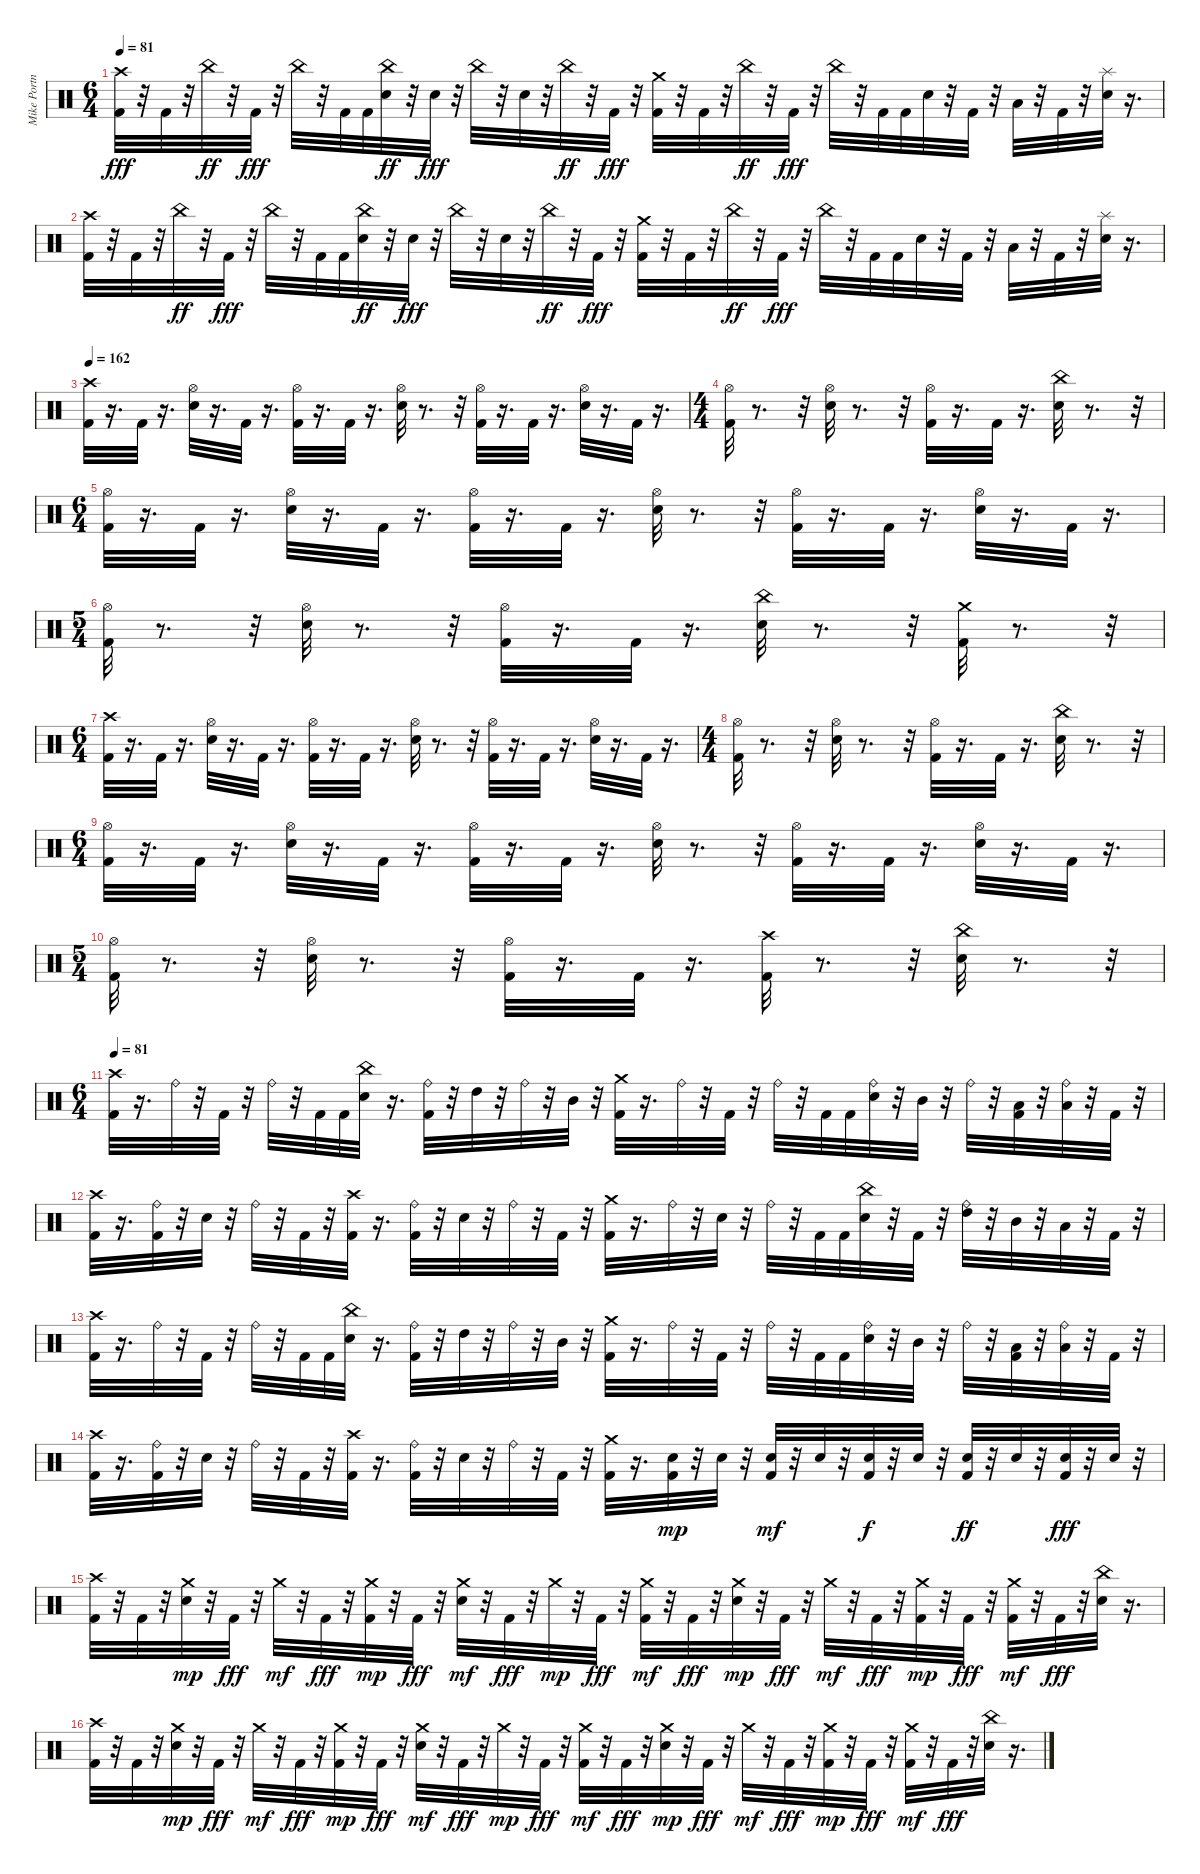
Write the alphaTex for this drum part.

\track ("Mike Portnoy" "Mike Portn") {instrument percussion}
\staff {score}
\articulation defaults
\ts (6 4)
\tempo 81
\clef neutral
\ks c
("Kick (hit) 2" "Crash high (hit)").32{dy fff} r.32 "Kick (hit) 2".32 r.32 "China (hit)".32{dy ff} r.32 "Kick (hit) 2".32{dy fff} r.32 "China (hit)".32 r.32 "Kick (hit) 2".32 "Kick (hit) 2".32 ("Snare (hit) 2" "China (hit)").32{dy ff} r.32 "Snare (hit) 2".32{dy fff} r.32 "China (hit)".32 r.32 "Snare (hit) 2".32 r.32 "China (hit)".32{dy ff} r.32 "Kick (hit) 2".32{dy fff} r.32 ("Kick (hit) 2" "Crash medium (hit)").32 r.32 "Kick (hit) 2".32 r.32 "China (hit)".32{dy ff} r.32 "Kick (hit) 2".32{dy fff} r.32 "China (hit)".32 r.32 "Kick (hit) 2".32 "Kick (hit) 2".32 "Snare (hit) 2".32 r.32 "Kick (hit) 2".32 r.32 "Low Tom (hit)".32 r.32 "Kick (hit) 2".32 r.32 ("Snare (hit) 2" "Splash (hit)").32 r.16{d} |
("Kick (hit) 2" "Crash high (hit)").32 r.32 "Kick (hit) 2".32 r.32 "China (hit)".32{dy ff} r.32 "Kick (hit) 2".32{dy fff} r.32 "China (hit)".32 r.32 "Kick (hit) 2".32 "Kick (hit) 2".32 ("Snare (hit) 2" "China (hit)").32{dy ff} r.32 "Snare (hit) 2".32{dy fff} r.32 "China (hit)".32 r.32 "Snare (hit) 2".32 r.32 "China (hit)".32{dy ff} r.32 "Kick (hit) 2".32{dy fff} r.32 ("Kick (hit) 2" "Crash medium (hit)").32 r.32 "Kick (hit) 2".32 r.32 "China (hit)".32{dy ff} r.32 "Kick (hit) 2".32{dy fff} r.32 "China (hit)".32 r.32 "Kick (hit) 2".32 "Kick (hit) 2".32 "Snare (hit) 2".32 r.32 "Kick (hit) 2".32 r.32 "Low Tom (hit)".32 r.32 "Kick (hit) 2".32 r.32 ("Snare (hit) 2" "Splash (hit)").32 r.16{d} |
\tempo 162
("Kick (hit) 2" "Crash high (hit)").32 r.16{d} "Kick (hit) 2".32 r.16{d} ("Hi-Hat (open)" "Snare (hit) 2").32 r.16{d} "Kick (hit) 2".32 r.16{d} ("Hi-Hat (open)" "Kick (hit) 2").32 r.16{d} "Kick (hit) 2".32 r.16{d} ("Hi-Hat (open)" "Snare (hit) 2").32 r.8{d} r.32 ("Hi-Hat (open)" "Kick (hit) 2").32 r.16{d} "Kick (hit) 2".32 r.16{d} ("Hi-Hat (open)" "Snare (hit) 2").32 r.16{d} "Kick (hit) 2".32 r.16{d} |
\ts (4 4)
("Hi-Hat (open)" "Kick (hit) 2").32 r.8{d} r.32 ("Hi-Hat (open)" "Snare (hit) 2").32 r.8{d} r.32 ("Hi-Hat (open)" "Kick (hit) 2").32 r.16{d} "Kick (hit) 2".32 r.16{d} ("Snare (hit) 2" "China (hit)").32 r.8{d} r.32 |
\ts (6 4)
("Hi-Hat (open)" "Kick (hit) 2").32 r.16{d} "Kick (hit) 2".32 r.16{d} ("Hi-Hat (open)" "Snare (hit) 2").32 r.16{d} "Kick (hit) 2".32 r.16{d} ("Hi-Hat (open)" "Kick (hit) 2").32 r.16{d} "Kick (hit) 2".32 r.16{d} ("Hi-Hat (open)" "Snare (hit) 2").32 r.8{d} r.32 ("Hi-Hat (open)" "Kick (hit) 2").32 r.16{d} "Kick (hit) 2".32 r.16{d} ("Hi-Hat (open)" "Snare (hit) 2").32 r.16{d} "Kick (hit) 2".32 r.16{d} |
\ts (5 4)
("Hi-Hat (open)" "Kick (hit) 2").32 r.8{d} r.32 ("Hi-Hat (open)" "Snare (hit) 2").32 r.8{d} r.32 ("Hi-Hat (open)" "Kick (hit) 2").32 r.16{d} "Kick (hit) 2".32 r.16{d} ("Snare (hit) 2" "China (hit)").32 r.8{d} r.32 ("Kick (hit) 2" "Crash medium (hit)").32 r.8{d} r.32 |
\ts (6 4)
("Kick (hit) 2" "Crash high (hit)").32 r.16{d} "Kick (hit) 2".32 r.16{d} ("Hi-Hat (open)" "Snare (hit) 2").32 r.16{d} "Kick (hit) 2".32 r.16{d} ("Hi-Hat (open)" "Kick (hit) 2").32 r.16{d} "Kick (hit) 2".32 r.16{d} ("Hi-Hat (open)" "Snare (hit) 2").32 r.8{d} r.32 ("Hi-Hat (open)" "Kick (hit) 2").32 r.16{d} "Kick (hit) 2".32 r.16{d} ("Hi-Hat (open)" "Snare (hit) 2").32 r.16{d} "Kick (hit) 2".32 r.16{d} |
\ts (4 4)
("Hi-Hat (open)" "Kick (hit) 2").32 r.8{d} r.32 ("Hi-Hat (open)" "Snare (hit) 2").32 r.8{d} r.32 ("Hi-Hat (open)" "Kick (hit) 2").32 r.16{d} "Kick (hit) 2".32 r.16{d} ("Snare (hit) 2" "China (hit)").32 r.8{d} r.32 |
\ts (6 4)
("Hi-Hat (open)" "Kick (hit) 2").32 r.16{d} "Kick (hit) 2".32 r.16{d} ("Hi-Hat (open)" "Snare (hit) 2").32 r.16{d} "Kick (hit) 2".32 r.16{d} ("Hi-Hat (open)" "Kick (hit) 2").32 r.16{d} "Kick (hit) 2".32 r.16{d} ("Hi-Hat (open)" "Snare (hit) 2").32 r.8{d} r.32 ("Hi-Hat (open)" "Kick (hit) 2").32 r.16{d} "Kick (hit) 2".32 r.16{d} ("Hi-Hat (open)" "Snare (hit) 2").32 r.16{d} "Kick (hit) 2".32 r.16{d} |
\ts (5 4)
("Hi-Hat (open)" "Kick (hit) 2").32 r.8{d} r.32 ("Hi-Hat (open)" "Snare (hit) 2").32 r.8{d} r.32 ("Hi-Hat (open)" "Kick (hit) 2").32 r.16{d} "Kick (hit) 2".32 r.16{d} ("Kick (hit) 2" "Crash high (hit)").32 r.8{d} r.32 ("Snare (hit) 2" "China (hit)").32 r.8{d} r.32 |
\ts (6 4)
\tempo 81
("Kick (hit) 2" "Crash high (hit)").32 r.16{d} "Ride (bell)".32 r.32 "Kick (hit) 2".32 r.32 "Ride (bell)".32 r.32 "Kick (hit) 2".32 "Kick (hit) 2".32 ("Snare (hit) 2" "China (hit)").32 r.16{d} ("Kick (hit) 2" "Ride (bell)").32 r.32 "High Tom (hit)".32 r.32 "Ride (bell)".32 r.32 "Mid Tom (hit)".32 r.32 ("Kick (hit) 2" "Crash medium (hit)").32 r.16{d} "Ride (bell)".32 r.32 "Kick (hit) 2".32 r.32 "Ride (bell)".32 r.32 "Kick (hit) 2".32 "Kick (hit) 2".32 ("Snare (hit) 2" "Ride (bell)").32 r.32 "Mid Tom (hit)".32 r.32 "Ride (bell)".32 r.32 ("Kick (hit) 2" "Low Tom (hit)").32 r.32 ("Low Tom (hit)" "Ride (bell)").32 r.32 "Kick (hit) 2".32 r.32 |
("Kick (hit) 2" "Crash high (hit)").32 r.16{d} ("Kick (hit) 2" "Ride (bell)").32 r.32 "Snare (hit) 2".32 r.32 "Ride (bell)".32 r.32 "Kick (hit) 2".32 r.32 ("Kick (hit) 2" "Crash high (hit)").32 r.16{d} ("Kick (hit) 2" "Ride (bell)").32 r.32 "Snare (hit) 2".32 r.32 "Ride (bell)".32 r.32 "Kick (hit) 2".32 r.32 ("Kick (hit) 2" "Crash medium (hit)").32 r.16{d} "Ride (bell)".32 r.32 "Snare (hit) 2".32 r.32 "Ride (bell)".32 r.32 "Kick (hit) 2".32 "Kick (hit) 2".32 ("Snare (hit) 2" "China (hit)").32 r.32 "Kick (hit) 2".32 r.32 ("High Tom (hit)" "Ride (bell)").32 r.32 "Mid Tom (hit)".32 r.32 "Low Tom (hit)".32 r.32 "Kick (hit) 2".32 r.32 |
("Kick (hit) 2" "Crash high (hit)").32 r.16{d} "Ride (bell)".32 r.32 "Kick (hit) 2".32 r.32 "Ride (bell)".32 r.32 "Kick (hit) 2".32 "Kick (hit) 2".32 ("Snare (hit) 2" "China (hit)").32 r.16{d} ("Kick (hit) 2" "Ride (bell)").32 r.32 "High Tom (hit)".32 r.32 "Ride (bell)".32 r.32 "Mid Tom (hit)".32 r.32 ("Kick (hit) 2" "Crash medium (hit)").32 r.16{d} "Ride (bell)".32 r.32 "Kick (hit) 2".32 r.32 "Ride (bell)".32 r.32 "Kick (hit) 2".32 "Kick (hit) 2".32 ("Snare (hit) 2" "Ride (bell)").32 r.32 "Mid Tom (hit)".32 r.32 "Ride (bell)".32 r.32 ("Kick (hit) 2" "Low Tom (hit)").32 r.32 ("Low Tom (hit)" "Ride (bell)").32 r.32 "Kick (hit) 2".32 r.32 |
("Kick (hit) 2" "Crash high (hit)").32 r.16{d} ("Kick (hit) 2" "Ride (bell)").32 r.32 "Snare (hit) 2".32 r.32 "Ride (bell)".32 r.32 "Kick (hit) 2".32 r.32 ("Kick (hit) 2" "Crash high (hit)").32 r.16{d} ("Kick (hit) 2" "Ride (bell)").32 r.32 "Snare (hit) 2".32 r.32 "Ride (bell)".32 r.32 "Kick (hit) 2".32 r.32 ("Kick (hit) 2" "Crash medium (hit)").32 r.16{d} ("Kick (hit) 2" "Snare (hit) 2").32{dy mp} r.32 "Snare (hit) 2".32 r.32 ("Kick (hit) 2" "Snare (hit) 2").32{dy mf} r.32 "Snare (hit) 2".32 r.32 ("Kick (hit) 2" "Snare (hit) 2").32{dy f} r.32 "Snare (hit) 2".32 r.32 ("Kick (hit) 2" "Snare (hit) 2").32{dy ff} r.32 "Snare (hit) 2".32 r.32 ("Kick (hit) 2" "Snare (hit) 2").32{dy fff} r.32 "Snare (hit) 2".32 r.32 |
("Kick (hit) 2" "Crash high (hit)").32 r.32 "Kick (hit) 2".32 r.32 ("Snare (hit) 2" "Crash medium (hit)").32{dy mp} r.32 "Kick (hit) 2".32{dy fff} r.32 "Crash medium (hit)".32{dy mf} r.32 "Kick (hit) 2".32{dy fff} r.32 ("Kick (hit) 2" "Crash medium (hit)").32{dy mp} r.32 "Kick (hit) 2".32{dy fff} r.32 ("Snare (hit) 2" "Crash medium (hit)").32{dy mf} r.32 "Kick (hit) 2".32{dy fff} r.32 "Crash medium (hit)".32{dy mp} r.32 "Kick (hit) 2".32{dy fff} r.32 ("Kick (hit) 2" "Crash medium (hit)").32{dy mf} r.32 "Kick (hit) 2".32{dy fff} r.32 ("Snare (hit) 2" "Crash medium (hit)").32{dy mp} r.32 "Kick (hit) 2".32{dy fff} r.32 "Crash medium (hit)".32{dy mf} r.32 "Kick (hit) 2".32{dy fff} r.32 ("Kick (hit) 2" "Crash medium (hit)").32{dy mp} r.32 "Kick (hit) 2".32{dy fff} r.32 ("Kick (hit) 2" "Crash medium (hit)").32{dy mf} r.32 "Kick (hit) 2".32{dy fff} r.32 ("Snare (hit) 2" "China (hit)").32 r.16{d} |
("Kick (hit) 2" "Crash high (hit)").32 r.32 "Kick (hit) 2".32 r.32 ("Snare (hit) 2" "Crash medium (hit)").32{dy mp} r.32 "Kick (hit) 2".32{dy fff} r.32 "Crash medium (hit)".32{dy mf} r.32 "Kick (hit) 2".32{dy fff} r.32 ("Kick (hit) 2" "Crash medium (hit)").32{dy mp} r.32 "Kick (hit) 2".32{dy fff} r.32 ("Snare (hit) 2" "Crash medium (hit)").32{dy mf} r.32 "Kick (hit) 2".32{dy fff} r.32 "Crash medium (hit)".32{dy mp} r.32 "Kick (hit) 2".32{dy fff} r.32 ("Kick (hit) 2" "Crash medium (hit)").32{dy mf} r.32 "Kick (hit) 2".32{dy fff} r.32 ("Snare (hit) 2" "Crash medium (hit)").32{dy mp} r.32 "Kick (hit) 2".32{dy fff} r.32 "Crash medium (hit)".32{dy mf} r.32 "Kick (hit) 2".32{dy fff} r.32 ("Kick (hit) 2" "Crash medium (hit)").32{dy mp} r.32 "Kick (hit) 2".32{dy fff} r.32 ("Kick (hit) 2" "Crash medium (hit)").32{dy mf} r.32 "Kick (hit) 2".32{dy fff} r.32 ("Snare (hit) 2" "China (hit)").32 r.16{d}
